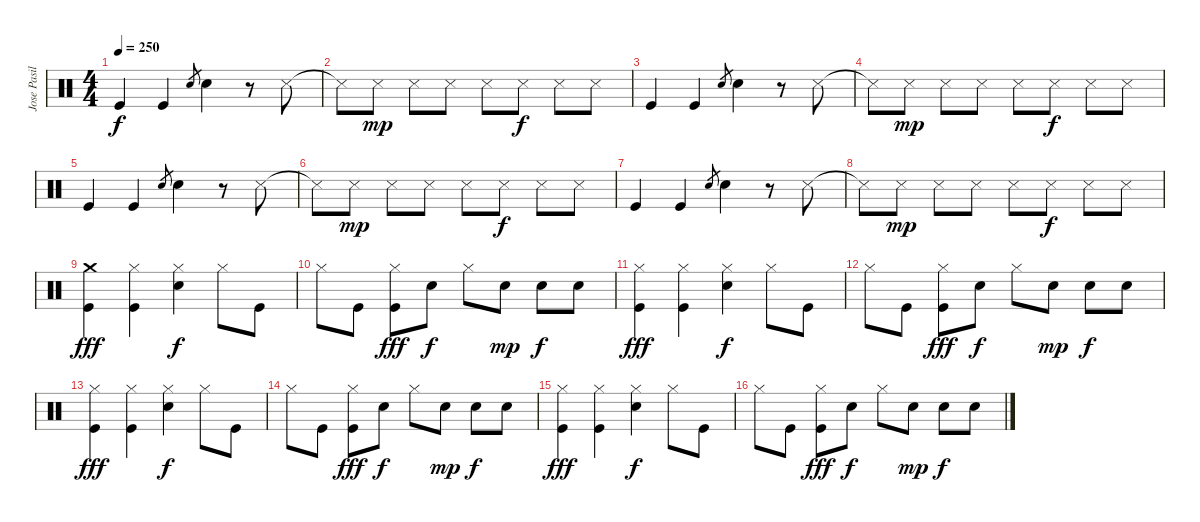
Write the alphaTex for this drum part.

\track ("Jose Pasillas II" "Jose Pasil") {instrument percussion}
\staff {score}
\articulation defaults
\ts (4 4)
\tempo 250
\clef neutral
\ks c "Kick (hit)".4{dy f} "Kick (hit)".4 "Electric Snare (hit)".8{gr} "Electric Snare (hit)".4
r.8 "Metronome (hit)".8 |
"Metronome (hit)"{t}.8 "Metronome (hit)".8{dy mp} "Metronome (hit)".8 "Metronome (hit)".8 "Metronome (hit)".8 "Metronome (hit)".8{dy f} "Metronome (hit)".8 "Metronome (hit)".8 |
"Kick (hit)".4 "Kick (hit)".4 "Electric Snare (hit)".8{gr} "Electric Snare (hit)".4 r.8 "Metronome (hit)".8 |
"Metronome (hit)"{t}.8 "Metronome (hit)".8{dy mp} "Metronome (hit)".8 "Metronome (hit)".8 "Metronome (hit)".8 "Metronome (hit)".8{dy f} "Metronome (hit)".8 "Metronome (hit)".8 |
"Kick (hit)".4 "Kick (hit)".4 "Electric Snare (hit)".8{gr} "Electric Snare (hit)".4 r.8 "Metronome (hit)".8 |
"Metronome (hit)"{t}.8 "Metronome (hit)".8{dy mp} "Metronome (hit)".8 "Metronome (hit)".8 "Metronome (hit)".8 "Metronome (hit)".8{dy f} "Metronome (hit)".8 "Metronome (hit)".8 |
"Kick (hit)".4 "Kick (hit)".4 "Electric Snare (hit)".8{gr} "Electric Snare (hit)".4 r.8 "Metronome (hit)".8 |
"Metronome (hit)"{t}.8 "Metronome (hit)".8{dy mp} "Metronome (hit)".8 "Metronome (hit)".8 "Metronome (hit)".8 "Metronome (hit)".8{dy f} "Metronome (hit)".8 "Metronome (hit)".8 |
("Crash medium (hit)" "Kick (hit)").4{dy fff} ("Hi-Hat (closed)" "Kick (hit)").4 ("Hi-Hat (closed)" "Electric Snare (hit)").4{dy f} "Hi-Hat (closed)".8 "Kick (hit)".8 |
"Hi-Hat (closed)".8 "Kick (hit)".8 ("Hi-Hat (closed)" "Kick (hit)").8{dy fff} "Electric Snare (hit)".8{dy f} "Hi-Hat (closed)".8 "Electric Snare (hit)".8{dy mp} "Electric Snare (hit)".8{dy f} "Electric Snare (hit)".8 |
("Hi-Hat (closed)" "Kick (hit)").4{dy fff} ("Hi-Hat (closed)" "Kick (hit)").4 ("Hi-Hat (closed)" "Electric Snare (hit)").4{dy f} "Hi-Hat (closed)".8 "Kick (hit)".8 |
"Hi-Hat (closed)".8 "Kick (hit)".8 ("Hi-Hat (closed)" "Kick (hit)").8{dy fff} "Electric Snare (hit)".8{dy f} "Hi-Hat (closed)".8 "Electric Snare (hit)".8{dy mp} "Electric Snare (hit)".8{dy f} "Electric Snare (hit)".8 |
("Hi-Hat (closed)" "Kick (hit)").4{dy fff} ("Hi-Hat (closed)" "Kick (hit)").4 ("Hi-Hat (closed)" "Electric Snare (hit)").4{dy f} "Hi-Hat (closed)".8 "Kick (hit)".8 |
"Hi-Hat (closed)".8 "Kick (hit)".8 ("Hi-Hat (closed)" "Kick (hit)").8{dy fff} "Electric Snare (hit)".8{dy f} "Hi-Hat (closed)".8 "Electric Snare (hit)".8{dy mp} "Electric Snare (hit)".8{dy f} "Electric Snare (hit)".8 |
("Hi-Hat (closed)" "Kick (hit)").4{dy fff} ("Hi-Hat (closed)" "Kick (hit)").4 ("Hi-Hat (closed)" "Electric Snare (hit)").4{dy f} "Hi-Hat (closed)".8 "Kick (hit)".8 |
"Hi-Hat (closed)".8 "Kick (hit)".8 ("Hi-Hat (closed)" "Kick (hit)").8{dy fff} "Electric Snare (hit)".8{dy f} "Hi-Hat (closed)".8 "Electric Snare (hit)".8{dy mp} "Electric Snare (hit)".8{dy f} "Electric Snare (hit)".8
